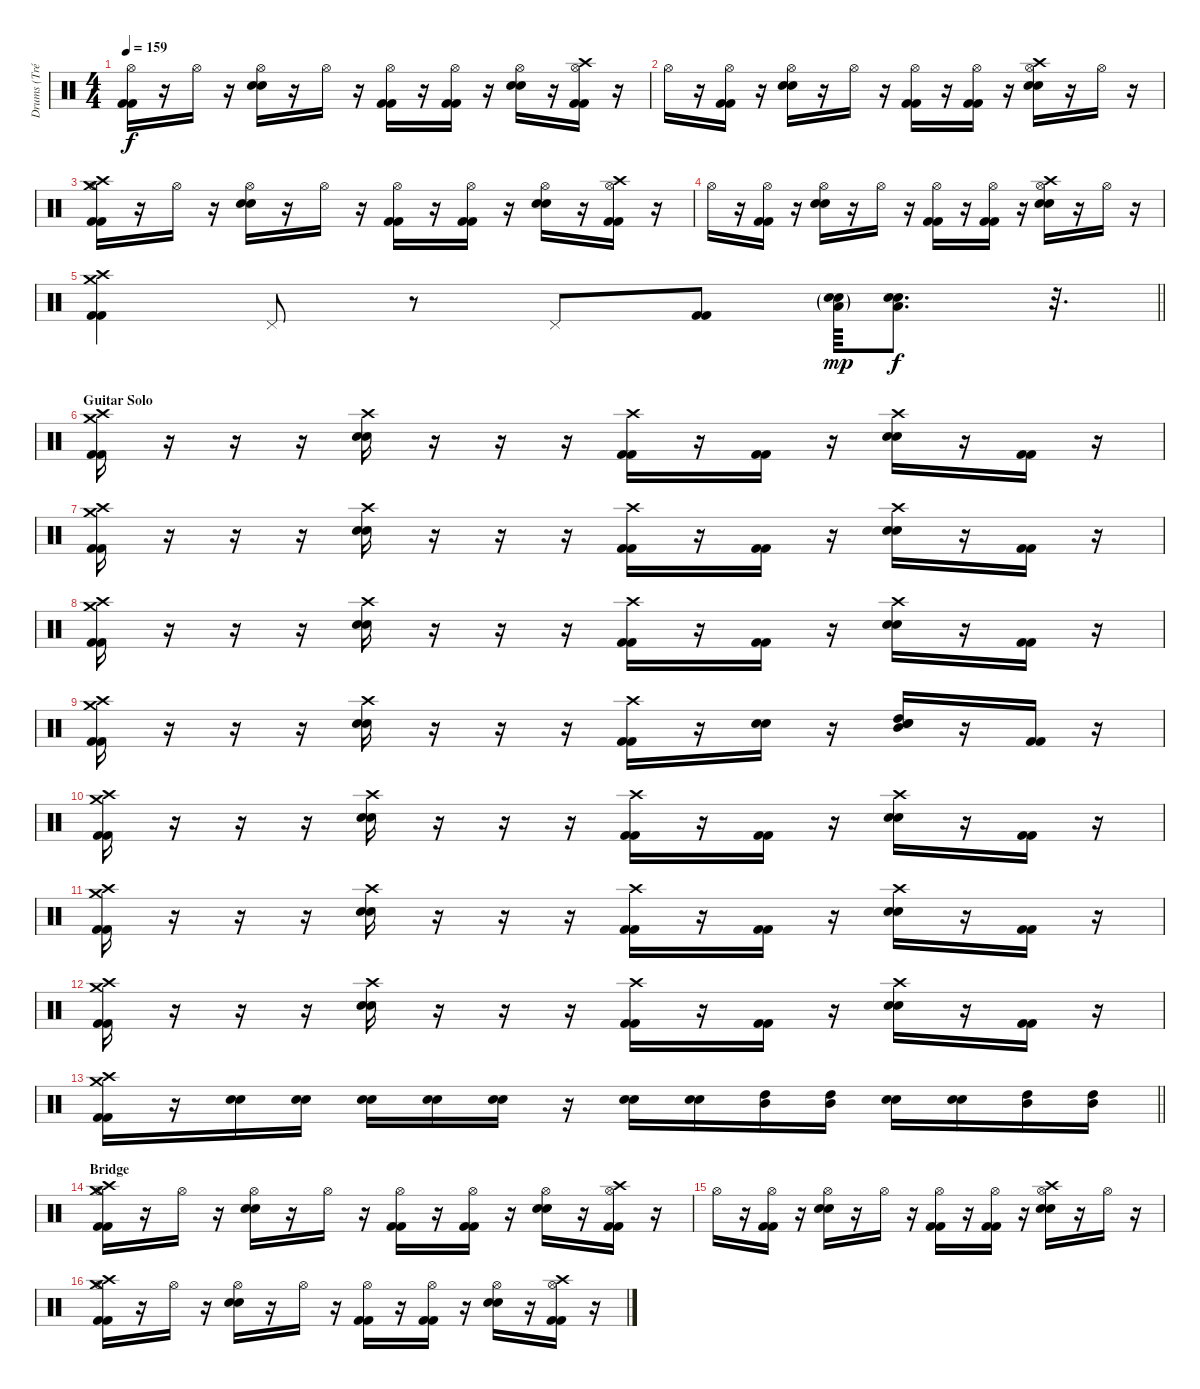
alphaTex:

\track ("Drums (Tré Cool)" "Drums (Tré") {instrument percussion}
\staff {score}
\articulation defaults
\ts (4 4)
\tempo 159
\clef neutral
\ks c
("Hi-Hat (open)" "Kick (hit) 2" "Kick (hit) 2").16{dy f} r.16 "Hi-Hat (open)".16 r.16 ("Hi-Hat (open)" "Snare (hit) 2" "Snare (hit) 2").16 r.16 "Hi-Hat (open)".16 r.16 ("Hi-Hat (open)" "Kick (hit) 2" "Kick (hit) 2").16 r.16 ("Hi-Hat (open)" "Kick (hit) 2" "Kick (hit) 2").16 r.16 ("Hi-Hat (open)" "Snare (hit) 2" "Snare (hit) 2").16 r.16 ("Hi-Hat (open)" "Crash high (hit)" "Kick (hit) 2" "Kick (hit) 2").16 r.16 |
"Hi-Hat (open)".16 r.16 ("Hi-Hat (open)" "Kick (hit) 2" "Kick (hit) 2").16 r.16 ("Hi-Hat (open)" "Snare (hit) 2" "Snare (hit) 2").16 r.16 "Hi-Hat (open)".16 r.16 ("Hi-Hat (open)" "Kick (hit) 2" "Kick (hit) 2").16 r.16 ("Hi-Hat (open)" "Kick (hit) 2" "Kick (hit) 2").16 r.16 ("Hi-Hat (open)" "Crash high (hit)" "Snare (hit) 2" "Snare (hit) 2").16 r.16 "Hi-Hat (open)".16 r.16 |
("Hi-Hat (open)" "Crash high (hit)" "Crash medium (hit)" "Kick (hit) 2" "Kick (hit) 2").16 r.16 "Hi-Hat (open)".16 r.16 ("Hi-Hat (open)" "Snare (hit) 2" "Snare (hit) 2").16 r.16 "Hi-Hat (open)".16 r.16 ("Hi-Hat (open)" "Kick (hit) 2" "Kick (hit) 2").16 r.16 ("Hi-Hat (open)" "Kick (hit) 2" "Kick (hit) 2").16 r.16 ("Hi-Hat (open)" "Snare (hit) 2" "Snare (hit) 2").16 r.16 ("Hi-Hat (open)" "Crash high (hit)" "Kick (hit) 2" "Kick (hit) 2").16 r.16 |
"Hi-Hat (open)".16 r.16 ("Hi-Hat (open)" "Kick (hit) 2" "Kick (hit) 2").16 r.16 ("Hi-Hat (open)" "Snare (hit) 2" "Snare (hit) 2").16 r.16 "Hi-Hat (open)".16 r.16 ("Hi-Hat (open)" "Kick (hit) 2" "Kick (hit) 2").16 r.16 ("Hi-Hat (open)" "Kick (hit) 2" "Kick (hit) 2").16 r.16 ("Hi-Hat (open)" "Crash high (hit)" "Snare (hit) 2" "Snare (hit) 2").16 r.16 "Hi-Hat (open)".16 r.16 |
\barLineRight lightlight
("Crash medium (hit)" "Crash high (hit)" "Kick (hit) 2" "Kick (hit) 2").4 "Pedal Hi-Hat (hit)".8 r.8 "Pedal Hi-Hat (hit)".8 ("Kick (hit) 2" "Kick (hit) 2").8 ("Low Tom (hit)"{g} "Snare (hit) 2"{g} "Snare (hit) 2"{g}).64{dy mp} ("Low Tom (hit)" "Snare (hit) 2" "Snare (hit) 2").8{d dy f} r.32{d} |
\section ("" "Guitar Solo")
("Crash high (hit)" "Crash medium (hit)" "Kick (hit) 2" "Kick (hit) 2").16 r.16 r.16 r.16 ("Crash high (hit)" "Snare (hit) 2" "Snare (hit) 2").16 r.16 r.16 r.16 ("Crash high (hit)" "Kick (hit) 2" "Kick (hit) 2").16 r.16 ("Kick (hit) 2" "Kick (hit) 2").16 r.16 ("Crash high (hit)" "Snare (hit) 2" "Snare (hit) 2").16 r.16 ("Kick (hit) 2" "Kick (hit) 2").16 r.16 |
("Crash high (hit)" "Crash medium (hit)" "Kick (hit) 2" "Kick (hit) 2").16 r.16 r.16 r.16 ("Crash high (hit)" "Snare (hit) 2" "Snare (hit) 2").16 r.16 r.16 r.16 ("Crash high (hit)" "Kick (hit) 2" "Kick (hit) 2").16 r.16 ("Kick (hit) 2" "Kick (hit) 2").16 r.16 ("Crash high (hit)" "Snare (hit) 2" "Snare (hit) 2").16 r.16 ("Kick (hit) 2" "Kick (hit) 2").16 r.16 |
("Crash high (hit)" "Crash medium (hit)" "Kick (hit) 2" "Kick (hit) 2").16 r.16 r.16 r.16 ("Crash high (hit)" "Snare (hit) 2" "Snare (hit) 2").16 r.16 r.16 r.16 ("Crash high (hit)" "Kick (hit) 2" "Kick (hit) 2").16 r.16 ("Kick (hit) 2" "Kick (hit) 2").16 r.16 ("Crash high (hit)" "Snare (hit) 2" "Snare (hit) 2").16 r.16 ("Kick (hit) 2" "Kick (hit) 2").16 r.16 |
("Crash high (hit)" "Crash medium (hit)" "Kick (hit) 2" "Kick (hit) 2").16 r.16 r.16 r.16 ("Crash high (hit)" "Snare (hit) 2" "Snare (hit) 2").16 r.16 r.16 r.16 ("Crash high (hit)" "Kick (hit) 2" "Kick (hit) 2").16 r.16 ("Snare (hit) 2" "Snare (hit) 2").16 r.16 ("High Tom (hit)" "Mid Tom (hit)" "Snare (hit) 2" "Snare (hit) 2").16 r.16 ("Kick (hit) 2" "Kick (hit) 2").16 r.16 |
("Crash high (hit)" "Crash medium (hit)" "Kick (hit) 2" "Kick (hit) 2").16 r.16 r.16 r.16 ("Crash high (hit)" "Snare (hit) 2" "Snare (hit) 2").16 r.16 r.16 r.16 ("Crash high (hit)" "Kick (hit) 2" "Kick (hit) 2").16 r.16 ("Kick (hit) 2" "Kick (hit) 2").16 r.16 ("Crash high (hit)" "Snare (hit) 2" "Snare (hit) 2").16 r.16 ("Kick (hit) 2" "Kick (hit) 2").16 r.16 |
("Crash high (hit)" "Crash medium (hit)" "Kick (hit) 2" "Kick (hit) 2").16 r.16 r.16 r.16 ("Crash high (hit)" "Snare (hit) 2" "Snare (hit) 2").16 r.16 r.16 r.16 ("Crash high (hit)" "Kick (hit) 2" "Kick (hit) 2").16 r.16 ("Kick (hit) 2" "Kick (hit) 2").16 r.16 ("Crash high (hit)" "Snare (hit) 2" "Snare (hit) 2").16 r.16 ("Kick (hit) 2" "Kick (hit) 2").16 r.16 |
("Crash high (hit)" "Crash medium (hit)" "Kick (hit) 2" "Kick (hit) 2").16 r.16 r.16 r.16 ("Crash high (hit)" "Snare (hit) 2" "Snare (hit) 2").16 r.16 r.16 r.16 ("Crash high (hit)" "Kick (hit) 2" "Kick (hit) 2").16 r.16 ("Kick (hit) 2" "Kick (hit) 2").16 r.16 ("Crash high (hit)" "Snare (hit) 2" "Snare (hit) 2").16 r.16 ("Kick (hit) 2" "Kick (hit) 2").16 r.16 |
\barLineRight lightlight
("Crash high (hit)" "Crash medium (hit)" "Kick (hit) 2" "Kick (hit) 2").16 r.16 ("Snare (hit) 2" "Snare (hit) 2").16 ("Snare (hit) 2" "Snare (hit) 2").16 ("Snare (hit) 2" "Snare (hit) 2").16 ("Snare (hit) 2" "Snare (hit) 2").16 ("Snare (hit) 2" "Snare (hit) 2").16 r.16 ("Snare (hit) 2" "Snare (hit) 2").16 ("Snare (hit) 2" "Snare (hit) 2").16 ("Mid Tom (hit)" "High Tom (hit)").16 ("Mid Tom (hit)" "High Tom (hit)").16 ("Snare (hit) 2" "Snare (hit) 2").16 ("Snare (hit) 2" "Snare (hit) 2").16 ("High Tom (hit)" "Mid Tom (hit)").16 ("High Tom (hit)" "Mid Tom (hit)").16 |
\section ("" "Bridge")
("Hi-Hat (open)" "Crash high (hit)" "Crash medium (hit)" "Kick (hit) 2" "Kick (hit) 2").16 r.16 "Hi-Hat (open)".16 r.16 ("Hi-Hat (open)" "Snare (hit) 2" "Snare (hit) 2").16 r.16 "Hi-Hat (open)".16 r.16 ("Hi-Hat (open)" "Kick (hit) 2" "Kick (hit) 2").16 r.16 ("Hi-Hat (open)" "Kick (hit) 2" "Kick (hit) 2").16 r.16 ("Hi-Hat (open)" "Snare (hit) 2" "Snare (hit) 2").16 r.16 ("Hi-Hat (open)" "Crash high (hit)" "Kick (hit) 2" "Kick (hit) 2").16 r.16 |
"Hi-Hat (open)".16 r.16 ("Hi-Hat (open)" "Kick (hit) 2" "Kick (hit) 2").16 r.16 ("Hi-Hat (open)" "Snare (hit) 2" "Snare (hit) 2").16 r.16 "Hi-Hat (open)".16 r.16 ("Hi-Hat (open)" "Kick (hit) 2" "Kick (hit) 2").16 r.16 ("Hi-Hat (open)" "Kick (hit) 2" "Kick (hit) 2").16 r.16 ("Hi-Hat (open)" "Crash high (hit)" "Snare (hit) 2" "Snare (hit) 2").16 r.16 "Hi-Hat (open)".16 r.16 |
("Hi-Hat (open)" "Crash high (hit)" "Crash medium (hit)" "Kick (hit) 2" "Kick (hit) 2").16 r.16 "Hi-Hat (open)".16 r.16 ("Hi-Hat (open)" "Snare (hit) 2" "Snare (hit) 2").16 r.16 "Hi-Hat (open)".16 r.16 ("Hi-Hat (open)" "Kick (hit) 2" "Kick (hit) 2").16 r.16 ("Hi-Hat (open)" "Kick (hit) 2" "Kick (hit) 2").16 r.16 ("Hi-Hat (open)" "Snare (hit) 2" "Snare (hit) 2").16 r.16 ("Hi-Hat (open)" "Crash high (hit)" "Kick (hit) 2" "Kick (hit) 2").16 r.16
